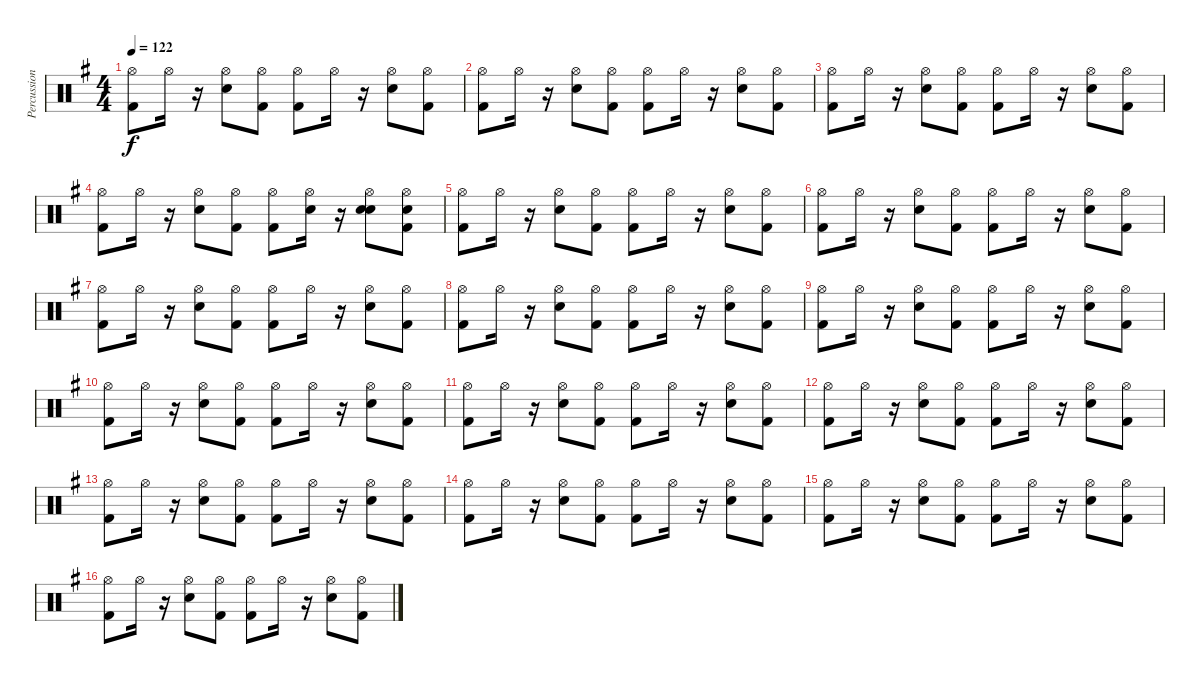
\track ("Percussion" "Percussion") {instrument percussion}
\staff {score}
\articulation defaults
\ts (4 4)
\tempo 122
\clef neutral
\ks g
("Kick (hit) 2" "Hi-Hat (open)").8{dy f} "Hi-Hat (open)".16 r.16 ("Electric Snare (hit)" "Hi-Hat (open)").8 ("Kick (hit) 2" "Hi-Hat (open)").8 ("Kick (hit) 2" "Hi-Hat (open)").8 "Hi-Hat (open)".16 r.16 ("Electric Snare (hit)" "Hi-Hat (open)").8 ("Kick (hit) 2" "Hi-Hat (open)").8 |
("Kick (hit) 2" "Hi-Hat (open)").8 "Hi-Hat (open)".16 r.16 ("Electric Snare (hit)" "Hi-Hat (open)").8 ("Kick (hit) 2" "Hi-Hat (open)").8 ("Kick (hit) 2" "Hi-Hat (open)").8 "Hi-Hat (open)".16 r.16 ("Electric Snare (hit)" "Hi-Hat (open)").8 ("Kick (hit) 2" "Hi-Hat (open)").8 |
("Hi-Hat (open)" "Kick (hit) 2").8 "Hi-Hat (open)".16 r.16 ("Electric Snare (hit)" "Hi-Hat (open)").8 ("Kick (hit) 2" "Hi-Hat (open)").8 ("Kick (hit) 2" "Hi-Hat (open)").8 "Hi-Hat (open)".16 r.16 ("Electric Snare (hit)" "Hi-Hat (open)").8 ("Kick (hit) 2" "Hi-Hat (open)").8 |
("Kick (hit) 2" "Hi-Hat (open)").8 "Hi-Hat (open)".16 r.16 ("Electric Snare (hit)" "Hi-Hat (open)").8 ("Kick (hit) 2" "Hi-Hat (open)").8 ("Kick (hit) 2" "Hi-Hat (open)").8 ("Hi-Hat (open)" "Electric Snare (hit)").16 r.16 ("Electric Snare (hit)" "Hi-Hat (open)" "Electric Snare (hit)").8 ("Kick (hit) 2" "Hi-Hat (open)" "Electric Snare (hit)").8 |
("Kick (hit) 2" "Hi-Hat (open)").8 "Hi-Hat (open)".16 r.16 ("Electric Snare (hit)" "Hi-Hat (open)").8 ("Kick (hit) 2" "Hi-Hat (open)").8 ("Kick (hit) 2" "Hi-Hat (open)").8 "Hi-Hat (open)".16 r.16 ("Electric Snare (hit)" "Hi-Hat (open)").8 ("Kick (hit) 2" "Hi-Hat (open)").8 |
("Kick (hit) 2" "Hi-Hat (open)").8 "Hi-Hat (open)".16 r.16 ("Electric Snare (hit)" "Hi-Hat (open)").8 ("Kick (hit) 2" "Hi-Hat (open)").8 ("Kick (hit) 2" "Hi-Hat (open)").8 "Hi-Hat (open)".16 r.16 ("Electric Snare (hit)" "Hi-Hat (open)").8 ("Kick (hit) 2" "Hi-Hat (open)").8 |
("Kick (hit) 2" "Hi-Hat (open)").8 "Hi-Hat (open)".16 r.16 ("Electric Snare (hit)" "Hi-Hat (open)").8 ("Kick (hit) 2" "Hi-Hat (open)").8 ("Kick (hit) 2" "Hi-Hat (open)").8 "Hi-Hat (open)".16 r.16 ("Electric Snare (hit)" "Hi-Hat (open)").8 ("Kick (hit) 2" "Hi-Hat (open)").8 |
("Kick (hit) 2" "Hi-Hat (open)").8 "Hi-Hat (open)".16 r.16 ("Electric Snare (hit)" "Hi-Hat (open)").8 ("Kick (hit) 2" "Hi-Hat (open)").8 ("Kick (hit) 2" "Hi-Hat (open)").8 "Hi-Hat (open)".16 r.16 ("Electric Snare (hit)" "Hi-Hat (open)").8 ("Kick (hit) 2" "Hi-Hat (open)").8 |
("Hi-Hat (open)" "Kick (hit) 2").8 "Hi-Hat (open)".16 r.16 ("Electric Snare (hit)" "Hi-Hat (open)").8 ("Kick (hit) 2" "Hi-Hat (open)").8 ("Kick (hit) 2" "Hi-Hat (open)").8 "Hi-Hat (open)".16 r.16 ("Electric Snare (hit)" "Hi-Hat (open)").8 ("Kick (hit) 2" "Hi-Hat (open)").8 |
("Kick (hit) 2" "Hi-Hat (open)").8 "Hi-Hat (open)".16 r.16 ("Electric Snare (hit)" "Hi-Hat (open)").8 ("Kick (hit) 2" "Hi-Hat (open)").8 ("Kick (hit) 2" "Hi-Hat (open)").8 "Hi-Hat (open)".16 r.16 ("Electric Snare (hit)" "Hi-Hat (open)").8 ("Kick (hit) 2" "Hi-Hat (open)").8 |
("Kick (hit) 2" "Hi-Hat (open)").8 "Hi-Hat (open)".16 r.16 ("Electric Snare (hit)" "Hi-Hat (open)").8 ("Kick (hit) 2" "Hi-Hat (open)").8 ("Kick (hit) 2" "Hi-Hat (open)").8 "Hi-Hat (open)".16 r.16 ("Electric Snare (hit)" "Hi-Hat (open)").8 ("Kick (hit) 2" "Hi-Hat (open)").8 |
("Kick (hit) 2" "Hi-Hat (open)").8 "Hi-Hat (open)".16 r.16 ("Electric Snare (hit)" "Hi-Hat (open)").8 ("Kick (hit) 2" "Hi-Hat (open)").8 ("Kick (hit) 2" "Hi-Hat (open)").8 "Hi-Hat (open)".16 r.16 ("Electric Snare (hit)" "Hi-Hat (open)").8 ("Kick (hit) 2" "Hi-Hat (open)").8 |
("Kick (hit) 2" "Hi-Hat (open)").8 "Hi-Hat (open)".16 r.16 ("Electric Snare (hit)" "Hi-Hat (open)").8 ("Kick (hit) 2" "Hi-Hat (open)").8 ("Kick (hit) 2" "Hi-Hat (open)").8 "Hi-Hat (open)".16 r.16 ("Electric Snare (hit)" "Hi-Hat (open)").8 ("Kick (hit) 2" "Hi-Hat (open)").8 |
("Kick (hit) 2" "Hi-Hat (open)").8 "Hi-Hat (open)".16 r.16 ("Electric Snare (hit)" "Hi-Hat (open)").8 ("Kick (hit) 2" "Hi-Hat (open)").8 ("Kick (hit) 2" "Hi-Hat (open)").8 "Hi-Hat (open)".16 r.16 ("Electric Snare (hit)" "Hi-Hat (open)").8 ("Kick (hit) 2" "Hi-Hat (open)").8 |
("Hi-Hat (open)" "Kick (hit) 2").8 "Hi-Hat (open)".16 r.16 ("Electric Snare (hit)" "Hi-Hat (open)").8 ("Kick (hit) 2" "Hi-Hat (open)").8 ("Kick (hit) 2" "Hi-Hat (open)").8 "Hi-Hat (open)".16 r.16 ("Electric Snare (hit)" "Hi-Hat (open)").8 ("Kick (hit) 2" "Hi-Hat (open)").8 |
("Kick (hit) 2" "Hi-Hat (open)").8 "Hi-Hat (open)".16 r.16 ("Electric Snare (hit)" "Hi-Hat (open)").8 ("Kick (hit) 2" "Hi-Hat (open)").8 ("Kick (hit) 2" "Hi-Hat (open)").8 "Hi-Hat (open)".16 r.16 ("Electric Snare (hit)" "Hi-Hat (open)").8 ("Kick (hit) 2" "Hi-Hat (open)").8
